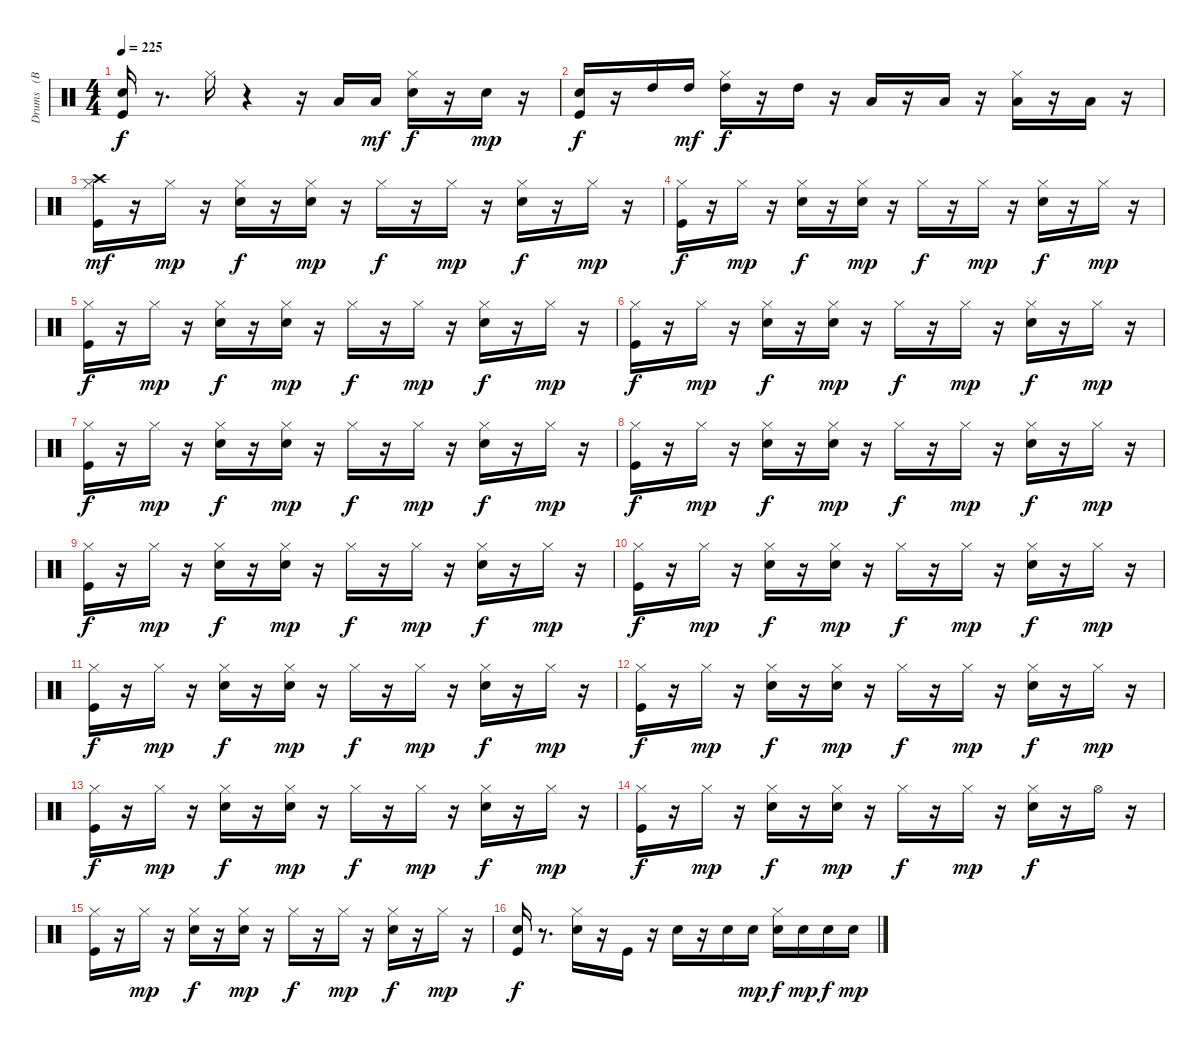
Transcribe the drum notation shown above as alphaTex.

\track ("Drums   (BB)" "Drums   (B") {instrument percussion}
\staff {score}
\articulation defaults
\ts (4 4)
\tempo 225
\clef neutral
\ks c
("Kick (hit)" "Snare (hit) 2").16{dy f} r.8{d} "Hi-Hat (closed)".16 r.4 r.16 "Low Tom (hit)".16 "Low Tom (hit)".16{dy mf} ("Snare (hit) 2" "Hi-Hat (closed)").16{dy f} r.16 "Snare (hit) 2".16{dy mp} r.16 |
("Kick (hit)" "Snare (hit) 2").16{dy f} r.16 "High Tom (hit)".16 "High Tom (hit)".16{dy mf} ("Hi-Hat (closed)" "High Tom (hit)").16{dy f} r.16 "High Tom (hit)".16 r.16 "Low Tom (hit)".16 r.16 "Low Tom (hit)".16 r.16 ("Hi-Hat (closed)" "Low Floor Tom (hit)").16 r.16 "Low Floor Tom (hit)".16 r.16 |
("Kick (hit)" "Hi-Hat (closed)" "Crash high (hit)").16{dy mf} r.16 "Hi-Hat (closed)".16{dy mp} r.16 ("Snare (hit) 2" "Hi-Hat (closed)").16{dy f} r.16 ("Snare (hit) 2" "Hi-Hat (closed)").16{dy mp} r.16 "Hi-Hat (closed)".16{dy f} r.16 "Hi-Hat (closed)".16{dy mp} r.16 ("Snare (hit) 2" "Hi-Hat (closed)").16{dy f} r.16 "Hi-Hat (closed)".16{dy mp} r.16 |
("Kick (hit)" "Hi-Hat (closed)").16{dy f} r.16 "Hi-Hat (closed)".16{dy mp} r.16 ("Snare (hit) 2" "Hi-Hat (closed)").16{dy f} r.16 ("Snare (hit) 2" "Hi-Hat (closed)").16{dy mp} r.16 "Hi-Hat (closed)".16{dy f} r.16 "Hi-Hat (closed)".16{dy mp} r.16 ("Snare (hit) 2" "Hi-Hat (closed)").16{dy f} r.16 "Hi-Hat (closed)".16{dy mp} r.16 |
("Kick (hit)" "Hi-Hat (closed)").16{dy f} r.16 "Hi-Hat (closed)".16{dy mp} r.16 ("Snare (hit) 2" "Hi-Hat (closed)").16{dy f} r.16 ("Snare (hit) 2" "Hi-Hat (closed)").16{dy mp} r.16 "Hi-Hat (closed)".16{dy f} r.16 "Hi-Hat (closed)".16{dy mp} r.16 ("Snare (hit) 2" "Hi-Hat (closed)").16{dy f} r.16 "Hi-Hat (closed)".16{dy mp} r.16 |
("Kick (hit)" "Hi-Hat (closed)").16{dy f} r.16 "Hi-Hat (closed)".16{dy mp} r.16 ("Snare (hit) 2" "Hi-Hat (closed)").16{dy f} r.16 ("Snare (hit) 2" "Hi-Hat (closed)").16{dy mp} r.16 "Hi-Hat (closed)".16{dy f} r.16 "Hi-Hat (closed)".16{dy mp} r.16 ("Snare (hit) 2" "Hi-Hat (closed)").16{dy f} r.16 "Hi-Hat (closed)".16{dy mp} r.16 |
("Kick (hit)" "Hi-Hat (closed)").16{dy f} r.16 "Hi-Hat (closed)".16{dy mp} r.16 ("Snare (hit) 2" "Hi-Hat (closed)").16{dy f} r.16 ("Snare (hit) 2" "Hi-Hat (closed)").16{dy mp} r.16 "Hi-Hat (closed)".16{dy f} r.16 "Hi-Hat (closed)".16{dy mp} r.16 ("Snare (hit) 2" "Hi-Hat (closed)").16{dy f} r.16 "Hi-Hat (closed)".16{dy mp} r.16 |
("Kick (hit)" "Hi-Hat (closed)").16{dy f} r.16 "Hi-Hat (closed)".16{dy mp} r.16 ("Snare (hit) 2" "Hi-Hat (closed)").16{dy f} r.16 ("Snare (hit) 2" "Hi-Hat (closed)").16{dy mp} r.16 "Hi-Hat (closed)".16{dy f} r.16 "Hi-Hat (closed)".16{dy mp} r.16 ("Snare (hit) 2" "Hi-Hat (closed)").16{dy f} r.16 "Hi-Hat (closed)".16{dy mp} r.16 |
("Kick (hit)" "Hi-Hat (closed)").16{dy f} r.16 "Hi-Hat (closed)".16{dy mp} r.16 ("Snare (hit) 2" "Hi-Hat (closed)").16{dy f} r.16 ("Snare (hit) 2" "Hi-Hat (closed)").16{dy mp} r.16 "Hi-Hat (closed)".16{dy f} r.16 "Hi-Hat (closed)".16{dy mp} r.16 ("Snare (hit) 2" "Hi-Hat (closed)").16{dy f} r.16 "Hi-Hat (closed)".16{dy mp} r.16 |
("Kick (hit)" "Hi-Hat (closed)").16{dy f} r.16 "Hi-Hat (closed)".16{dy mp} r.16 ("Snare (hit) 2" "Hi-Hat (closed)").16{dy f} r.16 ("Snare (hit) 2" "Hi-Hat (closed)").16{dy mp} r.16 "Hi-Hat (closed)".16{dy f} r.16 "Hi-Hat (closed)".16{dy mp} r.16 ("Snare (hit) 2" "Hi-Hat (closed)").16{dy f} r.16 "Hi-Hat (closed)".16{dy mp} r.16 |
("Kick (hit)" "Hi-Hat (closed)").16{dy f} r.16 "Hi-Hat (closed)".16{dy mp} r.16 ("Snare (hit) 2" "Hi-Hat (closed)").16{dy f} r.16 ("Snare (hit) 2" "Hi-Hat (closed)").16{dy mp} r.16 "Hi-Hat (closed)".16{dy f} r.16 "Hi-Hat (closed)".16{dy mp} r.16 ("Snare (hit) 2" "Hi-Hat (closed)").16{dy f} r.16 "Hi-Hat (closed)".16{dy mp} r.16 |
("Kick (hit)" "Hi-Hat (closed)").16{dy f} r.16 "Hi-Hat (closed)".16{dy mp} r.16 ("Snare (hit) 2" "Hi-Hat (closed)").16{dy f} r.16 ("Snare (hit) 2" "Hi-Hat (closed)").16{dy mp} r.16 "Hi-Hat (closed)".16{dy f} r.16 "Hi-Hat (closed)".16{dy mp} r.16 ("Snare (hit) 2" "Hi-Hat (closed)").16{dy f} r.16 "Hi-Hat (closed)".16{dy mp} r.16 |
("Kick (hit)" "Hi-Hat (closed)").16{dy f} r.16 "Hi-Hat (closed)".16{dy mp} r.16 ("Snare (hit) 2" "Hi-Hat (closed)").16{dy f} r.16 ("Snare (hit) 2" "Hi-Hat (closed)").16{dy mp} r.16 "Hi-Hat (closed)".16{dy f} r.16 "Hi-Hat (closed)".16{dy mp} r.16 ("Snare (hit) 2" "Hi-Hat (closed)").16{dy f} r.16 "Hi-Hat (closed)".16{dy mp} r.16 |
("Kick (hit)" "Hi-Hat (closed)").16{dy f} r.16 "Hi-Hat (closed)".16{dy mp} r.16 ("Snare (hit) 2" "Hi-Hat (closed)").16{dy f} r.16 ("Snare (hit) 2" "Hi-Hat (closed)").16{dy mp} r.16 "Hi-Hat (closed)".16{dy f} r.16 "Hi-Hat (closed)".16{dy mp} r.16 ("Snare (hit) 2" "Hi-Hat (closed)").16{dy f} r.16 "Hi-Hat (open)".16 r.16 |
("Kick (hit)" "Hi-Hat (closed)").16 r.16 "Hi-Hat (closed)".16{dy mp} r.16 ("Snare (hit) 2" "Hi-Hat (closed)").16{dy f} r.16 ("Snare (hit) 2" "Hi-Hat (closed)").16{dy mp} r.16 "Hi-Hat (closed)".16{dy f} r.16 "Hi-Hat (closed)".16{dy mp} r.16 ("Snare (hit) 2" "Hi-Hat (closed)").16{dy f} r.16 "Hi-Hat (closed)".16{dy mp} r.16 |
("Kick (hit)" "Snare (hit) 2").16{dy f} r.8{d} ("Snare (hit) 2" "Hi-Hat (closed)").16 r.16 "Kick (hit)".16 r.16 "Snare (hit) 2".16 r.16 "Snare (hit) 2".16 "Snare (hit) 2".16{dy mp} ("Snare (hit) 2" "Hi-Hat (closed)").16{dy f} "Snare (hit) 2".16{dy mp} "Snare (hit) 2".16{dy f} "Snare (hit) 2".16{dy mp}
